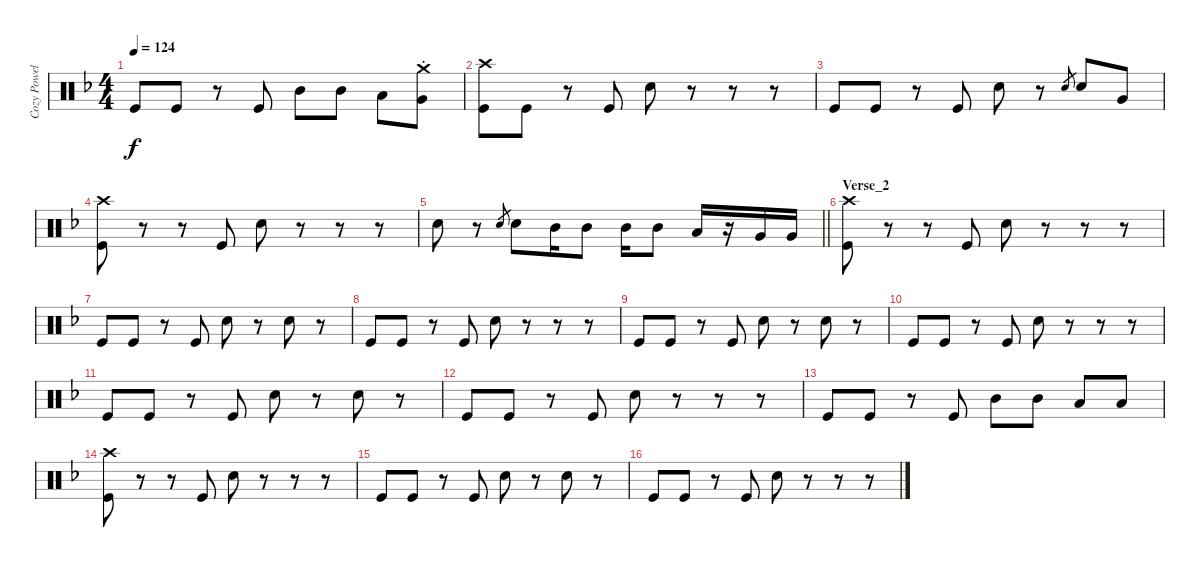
\track ("Cozy Powell" "Cozy Powel") {instrument percussion}
\staff {score}
\articulation defaults
\ts (4 4)
\tempo 124
\clef neutral
\ks f "Kick (hit)".8{dy f} "Kick (hit)".8
r.8 "Kick (hit)".8 "Mid Tom (hit)".8 "Mid Tom (hit)".8 "Low Tom (hit)".8 ("Very Low Tom (hit)" "Crash medium (hit)"{st}).8 |
("Kick (hit)" "Crash high (hit)").8 "Kick (hit)".8 r.8 "Kick (hit)".8 "Snare (hit) 2".8 r.8 r.8 r.8 |
"Kick (hit)".8 "Kick (hit)".8 r.8 "Kick (hit)".8 "Snare (hit) 2".8 r.8 "Snare (hit) 2".8{gr} "Snare (hit) 2".8 "Very Low Tom (hit)".8 |
("Kick (hit)" "Crash high (hit)").8 r.8 r.8 "Kick (hit)".8 "Snare (hit) 2".8 r.8 r.8 r.8 |
\barLineRight lightlight "Snare (hit) 2".8
r.8 "Snare (hit) 2".8{gr} "Snare (hit) 2".8 "Mid Tom (hit)".16 "Mid Tom (hit)".8 "Mid Tom (hit)".16 "Mid Tom (hit)".8 "Low Tom (hit)".16 r.16 "Very Low Tom (hit)".16 "Very Low Tom (hit)".16 |
\section ("" "Verse_2")
("Kick (hit)" "Crash high (hit)").8 r.8 r.8 "Kick (hit)".8 "Snare (hit) 2".8 r.8 r.8 r.8 |
"Kick (hit)".8 "Kick (hit)".8 r.8 "Kick (hit)".8 "Snare (hit) 2".8 r.8 "Snare (hit) 2".8 r.8 |
"Kick (hit)".8 "Kick (hit)".8 r.8 "Kick (hit)".8 "Snare (hit) 2".8 r.8 r.8 r.8 |
"Kick (hit)".8 "Kick (hit)".8 r.8 "Kick (hit)".8 "Snare (hit) 2".8 r.8 "Snare (hit) 2".8 r.8 |
"Kick (hit)".8 "Kick (hit)".8 r.8 "Kick (hit)".8 "Snare (hit) 2".8 r.8 r.8 r.8 |
"Kick (hit)".8 "Kick (hit)".8 r.8 "Kick (hit)".8 "Snare (hit) 2".8 r.8 "Snare (hit) 2".8 r.8 |
"Kick (hit)".8 "Kick (hit)".8 r.8 "Kick (hit)".8 "Snare (hit) 2".8 r.8 r.8 r.8 |
"Kick (hit)".8 "Kick (hit)".8 r.8 "Kick (hit)".8 "Mid Tom (hit)".8 "Mid Tom (hit)".8 "Low Tom (hit)".8 "Low Tom (hit)".8 |
("Kick (hit)" "Crash high (hit)").8 r.8 r.8 "Kick (hit)".8 "Snare (hit) 2".8 r.8 r.8 r.8 |
"Kick (hit)".8 "Kick (hit)".8 r.8 "Kick (hit)".8 "Snare (hit) 2".8 r.8 "Snare (hit) 2".8 r.8 |
"Kick (hit)".8 "Kick (hit)".8 r.8 "Kick (hit)".8 "Snare (hit) 2".8 r.8 r.8 r.8
